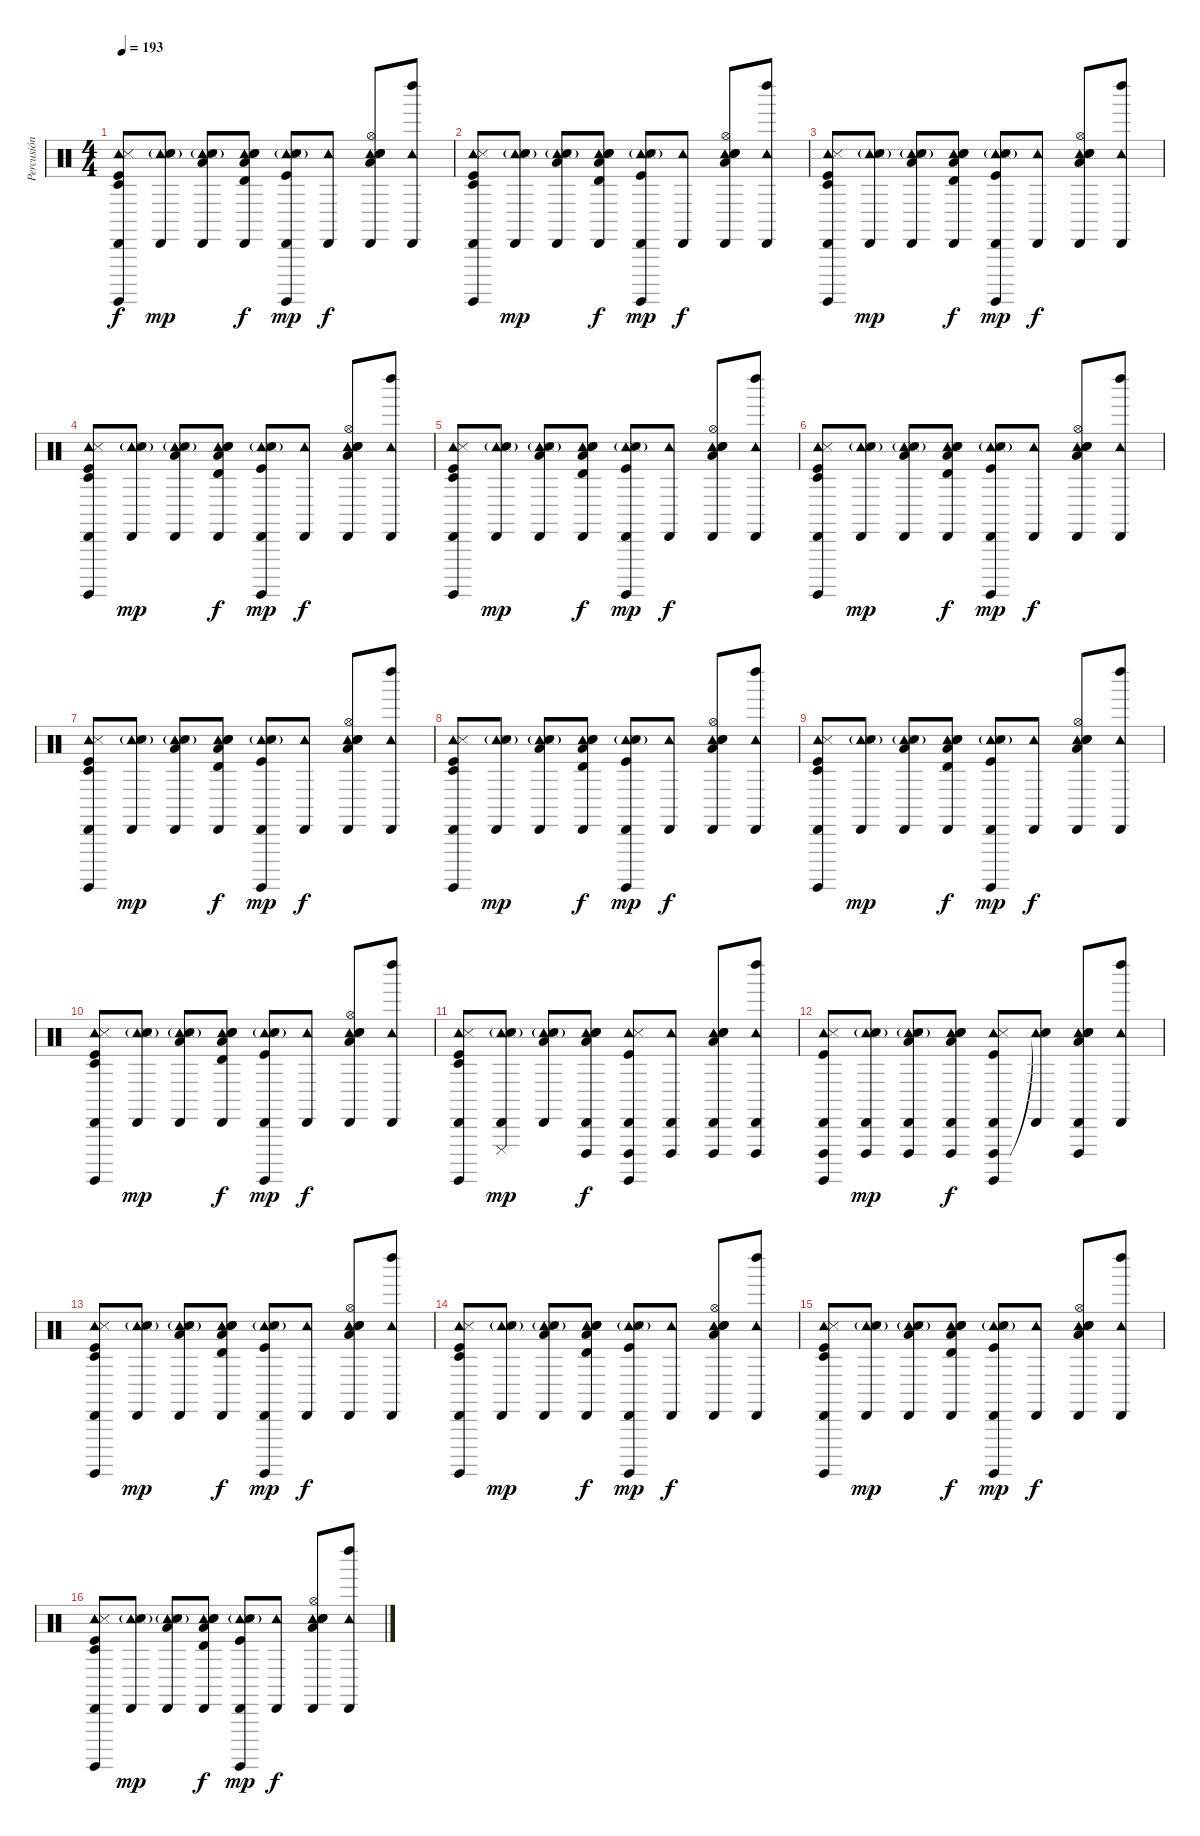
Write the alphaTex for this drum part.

\track ("Percusión" "Percusión") {instrument percussion}
\staff {score}
\articulation defaults
\ts (4 4)
\tempo 193
\clef neutral
\ks c
("Cabasa (hit)" "Tambourine (hit)" "Timbale low (hit)" "Metronome (hit)" "Surdo (hit)" "Kick (hit)").8{dy f} ("Cabasa (hit)" "Tambourine (hit)" "Hand Clap (hit)"{g} "Metronome (hit)").8{dy mp} ("Cabasa (hit)" "Tambourine (hit)" "Hand Clap (hit)"{g} "Metronome (hit)" "Low Tom (hit)").8 ("Cabasa (hit)" "Tambourine (hit)" "Timbale high (hit)" "Snare (hit) 2" "Low Tom (hit)" "Electric Snare (hit)").8{dy f} ("Cabasa (hit)" "Tambourine (hit)" "Hand Clap (hit)"{g} "Metronome (hit)" "Surdo (hit)" "Kick (hit)").8{dy mp} ("Cabasa (hit)" "Tambourine (hit)").8{dy f} ("Cabasa (hit)" "Tambourine (hit)" "Hi-Hat (open)" "Snare (hit) 2" "Low Tom (hit)" "Electric Snare (hit)").8 ("Cabasa (hit)" "Tambourine (hit)" "Left Maraca (hit)").8 |
("Cabasa (hit)" "Tambourine (hit)" "Timbale low (hit)" "Metronome (hit)" "Surdo (hit)" "Kick (hit)").8 ("Cabasa (hit)" "Tambourine (hit)" "Hand Clap (hit)"{g} "Metronome (hit)").8{dy mp} ("Cabasa (hit)" "Tambourine (hit)" "Hand Clap (hit)"{g} "Metronome (hit)" "Low Tom (hit)").8 ("Cabasa (hit)" "Tambourine (hit)" "Timbale high (hit)" "Snare (hit) 2" "Low Tom (hit)" "Electric Snare (hit)").8{dy f} ("Cabasa (hit)" "Tambourine (hit)" "Hand Clap (hit)"{g} "Metronome (hit)" "Surdo (hit)" "Kick (hit)").8{dy mp} ("Cabasa (hit)" "Tambourine (hit)").8{dy f} ("Cabasa (hit)" "Tambourine (hit)" "Hi-Hat (open)" "Snare (hit) 2" "Low Tom (hit)" "Electric Snare (hit)").8 ("Cabasa (hit)" "Tambourine (hit)" "Left Maraca (hit)").8 |
("Cabasa (hit)" "Tambourine (hit)" "Timbale low (hit)" "Metronome (hit)" "Surdo (hit)" "Kick (hit)").8 ("Cabasa (hit)" "Tambourine (hit)" "Hand Clap (hit)"{g} "Metronome (hit)").8{dy mp} ("Cabasa (hit)" "Tambourine (hit)" "Hand Clap (hit)"{g} "Metronome (hit)" "Low Tom (hit)").8 ("Cabasa (hit)" "Tambourine (hit)" "Timbale high (hit)" "Snare (hit) 2" "Low Tom (hit)" "Electric Snare (hit)").8{dy f} ("Cabasa (hit)" "Tambourine (hit)" "Hand Clap (hit)"{g} "Metronome (hit)" "Surdo (hit)" "Kick (hit)").8{dy mp} ("Cabasa (hit)" "Tambourine (hit)").8{dy f} ("Cabasa (hit)" "Tambourine (hit)" "Hi-Hat (open)" "Snare (hit) 2" "Low Tom (hit)" "Electric Snare (hit)").8 ("Cabasa (hit)" "Tambourine (hit)" "Left Maraca (hit)").8 |
("Cabasa (hit)" "Tambourine (hit)" "Timbale low (hit)" "Metronome (hit)" "Surdo (hit)" "Kick (hit)").8 ("Cabasa (hit)" "Tambourine (hit)" "Hand Clap (hit)"{g} "Metronome (hit)").8{dy mp} ("Cabasa (hit)" "Tambourine (hit)" "Hand Clap (hit)"{g} "Metronome (hit)" "Low Tom (hit)").8 ("Cabasa (hit)" "Tambourine (hit)" "Timbale high (hit)" "Snare (hit) 2" "Low Tom (hit)" "Electric Snare (hit)").8{dy f} ("Cabasa (hit)" "Tambourine (hit)" "Hand Clap (hit)"{g} "Metronome (hit)" "Surdo (hit)" "Kick (hit)").8{dy mp} ("Cabasa (hit)" "Tambourine (hit)").8{dy f} ("Cabasa (hit)" "Tambourine (hit)" "Hi-Hat (open)" "Snare (hit) 2" "Low Tom (hit)" "Electric Snare (hit)").8 ("Cabasa (hit)" "Tambourine (hit)" "Left Maraca (hit)").8 |
("Cabasa (hit)" "Tambourine (hit)" "Timbale low (hit)" "Metronome (hit)" "Surdo (hit)" "Kick (hit)").8 ("Cabasa (hit)" "Tambourine (hit)" "Hand Clap (hit)"{g} "Metronome (hit)").8{dy mp} ("Cabasa (hit)" "Tambourine (hit)" "Hand Clap (hit)"{g} "Metronome (hit)" "Low Tom (hit)").8 ("Cabasa (hit)" "Tambourine (hit)" "Timbale high (hit)" "Snare (hit) 2" "Low Tom (hit)" "Electric Snare (hit)").8{dy f} ("Cabasa (hit)" "Tambourine (hit)" "Hand Clap (hit)"{g} "Metronome (hit)" "Surdo (hit)" "Kick (hit)").8{dy mp} ("Cabasa (hit)" "Tambourine (hit)").8{dy f} ("Cabasa (hit)" "Tambourine (hit)" "Hi-Hat (open)" "Snare (hit) 2" "Low Tom (hit)" "Electric Snare (hit)").8 ("Cabasa (hit)" "Tambourine (hit)" "Left Maraca (hit)").8 |
("Cabasa (hit)" "Tambourine (hit)" "Timbale low (hit)" "Metronome (hit)" "Surdo (hit)" "Kick (hit)").8 ("Cabasa (hit)" "Tambourine (hit)" "Hand Clap (hit)"{g} "Metronome (hit)").8{dy mp} ("Cabasa (hit)" "Tambourine (hit)" "Hand Clap (hit)"{g} "Metronome (hit)" "Low Tom (hit)").8 ("Cabasa (hit)" "Tambourine (hit)" "Timbale high (hit)" "Snare (hit) 2" "Low Tom (hit)" "Electric Snare (hit)").8{dy f} ("Cabasa (hit)" "Tambourine (hit)" "Hand Clap (hit)"{g} "Metronome (hit)" "Surdo (hit)" "Kick (hit)").8{dy mp} ("Cabasa (hit)" "Tambourine (hit)").8{dy f} ("Cabasa (hit)" "Tambourine (hit)" "Hi-Hat (open)" "Snare (hit) 2" "Low Tom (hit)" "Electric Snare (hit)").8 ("Cabasa (hit)" "Tambourine (hit)" "Left Maraca (hit)").8 |
("Cabasa (hit)" "Tambourine (hit)" "Timbale low (hit)" "Metronome (hit)" "Surdo (hit)" "Kick (hit)").8 ("Cabasa (hit)" "Tambourine (hit)" "Hand Clap (hit)"{g} "Metronome (hit)").8{dy mp} ("Cabasa (hit)" "Tambourine (hit)" "Hand Clap (hit)"{g} "Metronome (hit)" "Low Tom (hit)").8 ("Cabasa (hit)" "Tambourine (hit)" "Timbale high (hit)" "Snare (hit) 2" "Low Tom (hit)" "Electric Snare (hit)").8{dy f} ("Cabasa (hit)" "Tambourine (hit)" "Hand Clap (hit)"{g} "Metronome (hit)" "Surdo (hit)" "Kick (hit)").8{dy mp} ("Cabasa (hit)" "Tambourine (hit)").8{dy f} ("Cabasa (hit)" "Tambourine (hit)" "Hi-Hat (open)" "Snare (hit) 2" "Low Tom (hit)" "Electric Snare (hit)").8 ("Cabasa (hit)" "Tambourine (hit)" "Left Maraca (hit)").8 |
("Cabasa (hit)" "Tambourine (hit)" "Timbale low (hit)" "Metronome (hit)" "Surdo (hit)" "Kick (hit)").8 ("Cabasa (hit)" "Tambourine (hit)" "Hand Clap (hit)"{g} "Metronome (hit)").8{dy mp} ("Cabasa (hit)" "Tambourine (hit)" "Hand Clap (hit)"{g} "Metronome (hit)" "Low Tom (hit)").8 ("Cabasa (hit)" "Tambourine (hit)" "Timbale high (hit)" "Snare (hit) 2" "Low Tom (hit)" "Electric Snare (hit)").8{dy f} ("Cabasa (hit)" "Tambourine (hit)" "Hand Clap (hit)"{g} "Metronome (hit)" "Surdo (hit)" "Kick (hit)").8{dy mp} ("Cabasa (hit)" "Tambourine (hit)").8{dy f} ("Cabasa (hit)" "Tambourine (hit)" "Hi-Hat (open)" "Snare (hit) 2" "Low Tom (hit)" "Electric Snare (hit)").8 ("Cabasa (hit)" "Tambourine (hit)" "Left Maraca (hit)").8 |
("Cabasa (hit)" "Tambourine (hit)" "Timbale low (hit)" "Metronome (hit)" "Surdo (hit)" "Kick (hit)").8 ("Cabasa (hit)" "Tambourine (hit)" "Hand Clap (hit)"{g} "Metronome (hit)").8{dy mp} ("Cabasa (hit)" "Tambourine (hit)" "Hand Clap (hit)"{g} "Metronome (hit)" "Low Tom (hit)").8 ("Cabasa (hit)" "Tambourine (hit)" "Timbale high (hit)" "Snare (hit) 2" "Low Tom (hit)" "Electric Snare (hit)").8{dy f} ("Cabasa (hit)" "Tambourine (hit)" "Hand Clap (hit)"{g} "Metronome (hit)" "Surdo (hit)" "Kick (hit)").8{dy mp} ("Cabasa (hit)" "Tambourine (hit)").8{dy f} ("Cabasa (hit)" "Tambourine (hit)" "Hi-Hat (open)" "Snare (hit) 2" "Low Tom (hit)" "Electric Snare (hit)").8 ("Cabasa (hit)" "Tambourine (hit)" "Left Maraca (hit)").8 |
("Cabasa (hit)" "Tambourine (hit)" "Timbale low (hit)" "Metronome (hit)" "Surdo (hit)" "Kick (hit)").8 ("Cabasa (hit)" "Tambourine (hit)" "Hand Clap (hit)"{g} "Metronome (hit)").8{dy mp} ("Cabasa (hit)" "Tambourine (hit)" "Hand Clap (hit)"{g} "Metronome (hit)" "Low Tom (hit)").8 ("Cabasa (hit)" "Tambourine (hit)" "Timbale high (hit)" "Snare (hit) 2" "Low Tom (hit)" "Electric Snare (hit)").8{dy f} ("Cabasa (hit)" "Tambourine (hit)" "Hand Clap (hit)"{g} "Metronome (hit)" "Surdo (hit)" "Kick (hit)").8{dy mp} ("Cabasa (hit)" "Tambourine (hit)").8{dy f} ("Cabasa (hit)" "Tambourine (hit)" "Hi-Hat (open)" "Snare (hit) 2" "Low Tom (hit)" "Electric Snare (hit)").8 ("Cabasa (hit)" "Tambourine (hit)" "Left Maraca (hit)").8 |
("Cabasa (hit)" "Tambourine (hit)" "Timbale low (hit)" "Metronome (hit)" "Surdo (hit)" "Kick (hit)").8 ("Cabasa (hit)" "Tambourine (hit)" "Hand Clap (hit)"{g} "Metronome (hit)" "Cuica (mute)").8{dy mp} ("Cabasa (hit)" "Tambourine (hit)" "Hand Clap (hit)"{g} "Metronome (hit)" "Low Tom (hit)").8 ("Cabasa (hit)" "Tambourine (hit)" "Cuica (open)" "Snare (hit) 2" "Low Tom (hit)" "Electric Snare (hit)").8{dy f} ("Cabasa (hit)" "Tambourine (hit)" "Cuica (open)" "Metronome (hit)" "Surdo (hit)" "Kick (hit)").8 ("Cabasa (hit)" "Tambourine (hit)" "Cuica (open)").8 ("Cabasa (hit)" "Tambourine (hit)" "Cuica (open)" "Snare (hit) 2" "Low Tom (hit)" "Electric Snare (hit)").8 ("Cabasa (hit)" "Tambourine (hit)" "Left Maraca (hit)" "Cuica (open)").8 |
("Cabasa (hit)" "Tambourine (hit)" "Cuica (open)" "Metronome (hit)" "Surdo (hit)" "Kick (hit)").8 ("Cabasa (hit)" "Tambourine (hit)" "Hand Clap (hit)"{g} "Metronome (hit)" "Cuica (open)").8{dy mp} ("Cabasa (hit)" "Tambourine (hit)" "Hand Clap (hit)"{g} "Metronome (hit)" "Low Tom (hit)" "Cuica (open)").8 ("Cabasa (hit)" "Tambourine (hit)" "Cuica (open)" "Snare (hit) 2" "Low Tom (hit)" "Electric Snare (hit)").8{dy f} ("Cabasa (hit)" "Tambourine (hit)" "Cuica (open)" "Metronome (hit)" "Surdo (hit)" "Kick (hit)").8 ("Cabasa (hit)" "Tambourine (hit)" "Snare (hit)"{t}).8 ("Cabasa (hit)" "Tambourine (hit)" "Cuica (open)" "Snare (hit) 2" "Low Tom (hit)" "Electric Snare (hit)").8 ("Cabasa (hit)" "Tambourine (hit)" "Left Maraca (hit)").8 |
("Cabasa (hit)" "Tambourine (hit)" "Timbale low (hit)" "Metronome (hit)" "Surdo (hit)" "Kick (hit)").8 ("Cabasa (hit)" "Tambourine (hit)" "Hand Clap (hit)"{g} "Metronome (hit)").8{dy mp} ("Cabasa (hit)" "Tambourine (hit)" "Hand Clap (hit)"{g} "Metronome (hit)" "Low Tom (hit)").8 ("Cabasa (hit)" "Tambourine (hit)" "Timbale high (hit)" "Snare (hit) 2" "Low Tom (hit)" "Electric Snare (hit)").8{dy f} ("Cabasa (hit)" "Tambourine (hit)" "Hand Clap (hit)"{g} "Metronome (hit)" "Surdo (hit)" "Kick (hit)").8{dy mp} ("Cabasa (hit)" "Tambourine (hit)").8{dy f} ("Cabasa (hit)" "Tambourine (hit)" "Hi-Hat (open)" "Snare (hit) 2" "Low Tom (hit)" "Electric Snare (hit)").8 ("Cabasa (hit)" "Tambourine (hit)" "Left Maraca (hit)").8 |
("Cabasa (hit)" "Tambourine (hit)" "Timbale low (hit)" "Metronome (hit)" "Surdo (hit)" "Kick (hit)").8 ("Cabasa (hit)" "Tambourine (hit)" "Hand Clap (hit)"{g} "Metronome (hit)").8{dy mp} ("Cabasa (hit)" "Tambourine (hit)" "Hand Clap (hit)"{g} "Metronome (hit)" "Low Tom (hit)").8 ("Cabasa (hit)" "Tambourine (hit)" "Timbale high (hit)" "Snare (hit) 2" "Low Tom (hit)" "Electric Snare (hit)").8{dy f} ("Cabasa (hit)" "Tambourine (hit)" "Hand Clap (hit)"{g} "Metronome (hit)" "Surdo (hit)" "Kick (hit)").8{dy mp} ("Cabasa (hit)" "Tambourine (hit)").8{dy f} ("Cabasa (hit)" "Tambourine (hit)" "Hi-Hat (open)" "Snare (hit) 2" "Low Tom (hit)" "Electric Snare (hit)").8 ("Cabasa (hit)" "Tambourine (hit)" "Left Maraca (hit)").8 |
("Cabasa (hit)" "Tambourine (hit)" "Timbale low (hit)" "Metronome (hit)" "Surdo (hit)" "Kick (hit)").8 ("Cabasa (hit)" "Tambourine (hit)" "Hand Clap (hit)"{g} "Metronome (hit)").8{dy mp} ("Cabasa (hit)" "Tambourine (hit)" "Hand Clap (hit)"{g} "Metronome (hit)" "Low Tom (hit)").8 ("Cabasa (hit)" "Tambourine (hit)" "Timbale high (hit)" "Snare (hit) 2" "Low Tom (hit)" "Electric Snare (hit)").8{dy f} ("Cabasa (hit)" "Tambourine (hit)" "Hand Clap (hit)"{g} "Metronome (hit)" "Surdo (hit)" "Kick (hit)").8{dy mp} ("Cabasa (hit)" "Tambourine (hit)").8{dy f} ("Cabasa (hit)" "Tambourine (hit)" "Hi-Hat (open)" "Snare (hit) 2" "Low Tom (hit)" "Electric Snare (hit)").8 ("Cabasa (hit)" "Tambourine (hit)" "Left Maraca (hit)").8 |
("Cabasa (hit)" "Tambourine (hit)" "Timbale low (hit)" "Metronome (hit)" "Surdo (hit)" "Kick (hit)").8 ("Cabasa (hit)" "Tambourine (hit)" "Hand Clap (hit)"{g} "Metronome (hit)").8{dy mp} ("Cabasa (hit)" "Tambourine (hit)" "Hand Clap (hit)"{g} "Metronome (hit)" "Low Tom (hit)").8 ("Cabasa (hit)" "Tambourine (hit)" "Timbale high (hit)" "Snare (hit) 2" "Low Tom (hit)" "Electric Snare (hit)").8{dy f} ("Cabasa (hit)" "Tambourine (hit)" "Hand Clap (hit)"{g} "Metronome (hit)" "Surdo (hit)" "Kick (hit)").8{dy mp} ("Cabasa (hit)" "Tambourine (hit)").8{dy f} ("Cabasa (hit)" "Tambourine (hit)" "Hi-Hat (open)" "Snare (hit) 2" "Low Tom (hit)" "Electric Snare (hit)").8 ("Cabasa (hit)" "Tambourine (hit)" "Left Maraca (hit)").8
